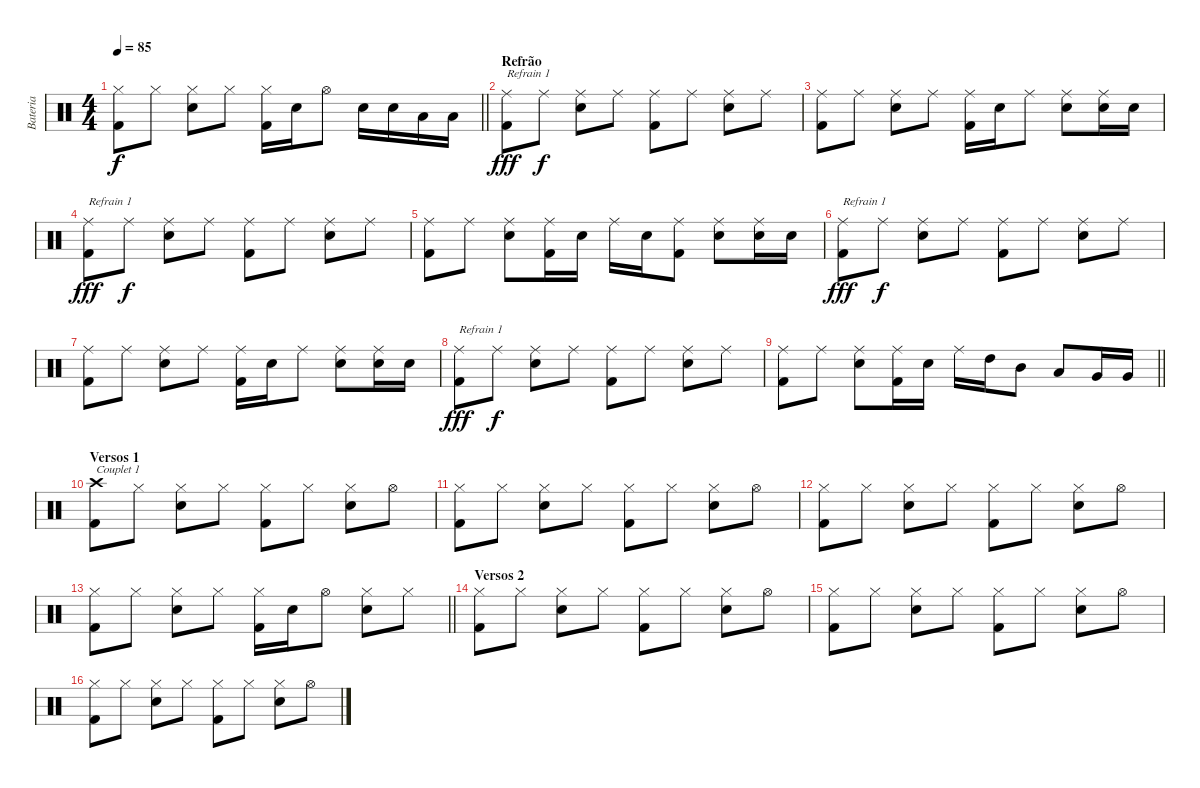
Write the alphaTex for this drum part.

\track ("Bateria" "Bateria") {instrument percussion}
\staff {score}
\articulation defaults
\ts (4 4)
\tempo 85
\clef neutral
\barLineRight lightlight
\ks c
("Hi-Hat (closed)" "Kick (hit) 2").8{dy f} "Hi-Hat (closed)".8 ("Hi-Hat (closed)" "Snare (hit) 2").8 "Hi-Hat (closed)".8 ("Hi-Hat (closed)" "Kick (hit) 2").16 "Snare (hit) 2".16 "Hi-Hat (open)".8 "Snare (hit) 2".16 "Snare (hit) 2".16 "Low Tom (hit)".16 "Low Tom (hit)".16 |
\section ("" "Refrão")
("Ride (middle)" "Kick (hit) 2").8{txt "Refrain 1" dy fff} "Ride (middle)".8{dy f} ("Ride (middle)" "Snare (hit) 2").8 "Ride (middle)".8 ("Ride (middle)" "Kick (hit) 2").8 "Ride (middle)".8 ("Ride (middle)" "Snare (hit) 2").8 "Ride (middle)".8 |
("Ride (middle)" "Kick (hit) 2").8 "Ride (middle)".8 ("Ride (middle)" "Snare (hit) 2").8 "Ride (middle)".8 ("Ride (middle)" "Kick (hit) 2").16 "Snare (hit) 2".16 "Ride (middle)".8 ("Ride (middle)" "Snare (hit) 2").8 ("Ride (middle)" "Snare (hit) 2").16 "Snare (hit) 2".16 |
("Ride (middle)" "Kick (hit) 2").8{txt "Refrain 1" dy fff} "Ride (middle)".8{dy f} ("Ride (middle)" "Snare (hit) 2").8 "Ride (middle)".8 ("Ride (middle)" "Kick (hit) 2").8 "Ride (middle)".8 ("Ride (middle)" "Snare (hit) 2").8 "Ride (middle)".8 |
("Ride (middle)" "Kick (hit) 2").8 "Ride (middle)".8 ("Ride (middle)" "Snare (hit) 2").8 ("Ride (middle)" "Kick (hit) 2").16 "Snare (hit) 2".16 "Ride (middle)".16 "Snare (hit) 2".16 ("Ride (middle)" "Kick (hit) 2").8 ("Ride (middle)" "Snare (hit) 2").8 ("Ride (middle)" "Snare (hit) 2").16 "Snare (hit) 2".16 |
("Ride (middle)" "Kick (hit) 2").8{txt "Refrain 1" dy fff} "Ride (middle)".8{dy f} ("Ride (middle)" "Snare (hit) 2").8 "Ride (middle)".8 ("Ride (middle)" "Kick (hit) 2").8 "Ride (middle)".8 ("Ride (middle)" "Snare (hit) 2").8 "Ride (middle)".8 |
("Ride (middle)" "Kick (hit) 2").8 "Ride (middle)".8 ("Ride (middle)" "Snare (hit) 2").8 "Ride (middle)".8 ("Ride (middle)" "Kick (hit) 2").16 "Snare (hit) 2".16 "Ride (middle)".8 ("Ride (middle)" "Snare (hit) 2").8 ("Ride (middle)" "Snare (hit) 2").16 "Snare (hit) 2".16 |
("Ride (middle)" "Kick (hit) 2").8{txt "Refrain 1" dy fff} "Ride (middle)".8{dy f} ("Ride (middle)" "Snare (hit) 2").8 "Ride (middle)".8 ("Ride (middle)" "Kick (hit) 2").8 "Ride (middle)".8 ("Ride (middle)" "Snare (hit) 2").8 "Ride (middle)".8 |
\barLineRight lightlight
("Ride (middle)" "Kick (hit) 2").8 "Ride (middle)".8 ("Ride (middle)" "Snare (hit) 2").8 ("Ride (middle)" "Kick (hit) 2").16 "Snare (hit) 2".16 "Ride (middle)".16 "High Tom (hit)".16 "Mid Tom (hit)".8 "Low Tom (hit)".8 "Very Low Tom (hit)".16 "Very Low Tom (hit)".16 |
\section ("" "Versos 1")
("Crash high (hit)" "Kick (hit) 2").8{txt "Couplet 1"} "Hi-Hat (closed)".8 ("Hi-Hat (closed)" "Snare (hit) 2").8 "Hi-Hat (closed)".8 ("Hi-Hat (closed)" "Kick (hit) 2").8 "Hi-Hat (closed)".8 ("Hi-Hat (closed)" "Snare (hit) 2").8 "Hi-Hat (open)".8 |
("Hi-Hat (closed)" "Kick (hit) 2").8 "Hi-Hat (closed)".8 ("Hi-Hat (closed)" "Snare (hit) 2").8 "Hi-Hat (closed)".8 ("Hi-Hat (closed)" "Kick (hit) 2").8 "Hi-Hat (closed)".8 ("Hi-Hat (closed)" "Snare (hit) 2").8 "Hi-Hat (open)".8 |
("Hi-Hat (closed)" "Kick (hit) 2").8 "Hi-Hat (closed)".8 ("Hi-Hat (closed)" "Snare (hit) 2").8 "Hi-Hat (closed)".8 ("Hi-Hat (closed)" "Kick (hit) 2").8 "Hi-Hat (closed)".8 ("Hi-Hat (closed)" "Snare (hit) 2").8 "Hi-Hat (open)".8 |
\barLineRight lightlight
("Hi-Hat (closed)" "Kick (hit) 2").8 "Hi-Hat (closed)".8 ("Hi-Hat (closed)" "Snare (hit) 2").8 "Hi-Hat (closed)".8 ("Hi-Hat (closed)" "Kick (hit) 2").16 "Snare (hit) 2".16 "Hi-Hat (open)".8 ("Hi-Hat (closed)" "Snare (hit) 2").8 "Hi-Hat (closed)".8 |
\section ("" "Versos 2")
("Hi-Hat (closed)" "Kick (hit) 2").8 "Hi-Hat (closed)".8 ("Hi-Hat (closed)" "Snare (hit) 2").8 "Hi-Hat (closed)".8 ("Hi-Hat (closed)" "Kick (hit) 2").8 "Hi-Hat (closed)".8 ("Hi-Hat (closed)" "Snare (hit) 2").8 "Hi-Hat (open)".8 |
("Hi-Hat (closed)" "Kick (hit) 2").8 "Hi-Hat (closed)".8 ("Hi-Hat (closed)" "Snare (hit) 2").8 "Hi-Hat (closed)".8 ("Hi-Hat (closed)" "Kick (hit) 2").8 "Hi-Hat (closed)".8 ("Hi-Hat (closed)" "Snare (hit) 2").8 "Hi-Hat (open)".8 |
("Hi-Hat (closed)" "Kick (hit) 2").8 "Hi-Hat (closed)".8 ("Hi-Hat (closed)" "Snare (hit) 2").8 "Hi-Hat (closed)".8 ("Hi-Hat (closed)" "Kick (hit) 2").8 "Hi-Hat (closed)".8 ("Hi-Hat (closed)" "Snare (hit) 2").8 "Hi-Hat (open)".8
